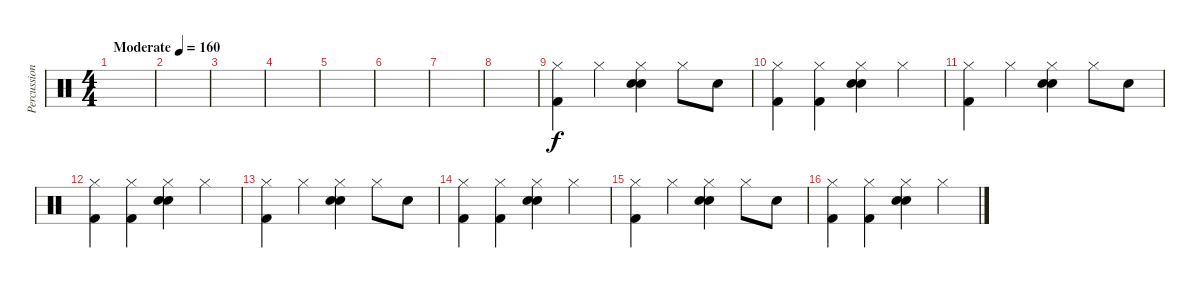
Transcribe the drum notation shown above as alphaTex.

\track ("Percussion" "Percussion") {instrument percussion}
\staff {score}
\articulation defaults
\ts (4 4)
\tempo (160 "Moderate")
\clef neutral
\ks c
|
|
|
|
|
|
|
|
("Hi-Hat (closed)" "Kick (hit) 2").4 "Hi-Hat (closed)".4 ("Hi-Hat (closed)" "Snare (hit) 2" "Hand Clap (hit)").4 "Hi-Hat (closed)".8 "Snare (hit) 2".8 |
("Hi-Hat (closed)" "Kick (hit) 2").4 ("Hi-Hat (closed)" "Kick (hit) 2").4 ("Hi-Hat (closed)" "Snare (hit) 2" "Hand Clap (hit)").4 "Hi-Hat (closed)".4 |
("Hi-Hat (closed)" "Kick (hit) 2").4 "Hi-Hat (closed)".4 ("Hi-Hat (closed)" "Snare (hit) 2" "Hand Clap (hit)").4 "Hi-Hat (closed)".8 "Snare (hit) 2".8 |
("Hi-Hat (closed)" "Kick (hit) 2").4 ("Hi-Hat (closed)" "Kick (hit) 2").4 ("Hi-Hat (closed)" "Snare (hit) 2" "Hand Clap (hit)").4 "Hi-Hat (closed)".4 |
("Hi-Hat (closed)" "Kick (hit) 2").4 "Hi-Hat (closed)".4 ("Hi-Hat (closed)" "Snare (hit) 2" "Hand Clap (hit)").4 "Hi-Hat (closed)".8 "Snare (hit) 2".8 |
("Hi-Hat (closed)" "Kick (hit) 2").4 ("Hi-Hat (closed)" "Kick (hit) 2").4 ("Hi-Hat (closed)" "Snare (hit) 2" "Hand Clap (hit)").4 "Hi-Hat (closed)".4 |
("Hi-Hat (closed)" "Kick (hit) 2").4 "Hi-Hat (closed)".4 ("Hi-Hat (closed)" "Snare (hit) 2" "Hand Clap (hit)").4 "Hi-Hat (closed)".8 "Snare (hit) 2".8 |
("Hi-Hat (closed)" "Kick (hit) 2").4 ("Hi-Hat (closed)" "Kick (hit) 2").4 ("Hi-Hat (closed)" "Snare (hit) 2" "Hand Clap (hit)").4 "Hi-Hat (closed)".4
